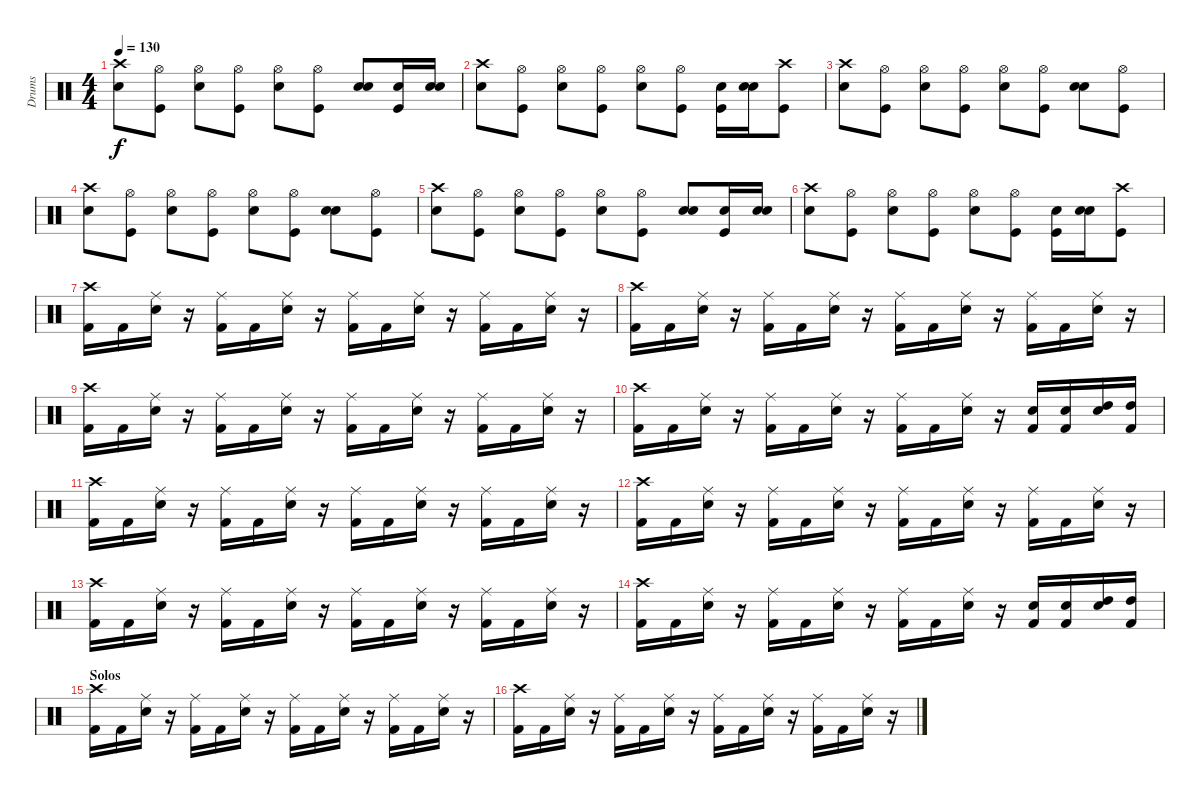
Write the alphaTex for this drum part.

\track ("Drums" "Drums") {instrument percussion}
\staff {score}
\articulation defaults
\ts (4 4)
\tempo 130
\clef neutral
\ks c
("Crash high (hit)" "Electric Snare (hit)").8{dy f} ("Hi-Hat (open)" "Kick (hit)").8 ("Electric Snare (hit)" "Hi-Hat (open)").8 ("Hi-Hat (open)" "Kick (hit)").8 ("Hi-Hat (open)" "Electric Snare (hit)").8 ("Hi-Hat (open)" "Kick (hit)").8 ("Electric Snare (hit)" "Electric Snare (hit)").8 ("Snare (hit) 2" "Kick (hit)").16 ("Snare (hit) 2" "Electric Snare (hit)").16 |
("Crash high (hit)" "Electric Snare (hit)").8 ("Hi-Hat (open)" "Kick (hit)").8 ("Electric Snare (hit)" "Hi-Hat (open)").8 ("Hi-Hat (open)" "Kick (hit)").8 ("Hi-Hat (open)" "Electric Snare (hit)").8 ("Hi-Hat (open)" "Kick (hit)").8 ("Snare (hit) 2" "Kick (hit)").16 ("Snare (hit) 2" "Electric Snare (hit)").16 ("Crash high (hit)" "Kick (hit)").8 |
("Crash high (hit)" "Electric Snare (hit)").8 ("Hi-Hat (open)" "Kick (hit)").8 ("Electric Snare (hit)" "Hi-Hat (open)").8 ("Hi-Hat (open)" "Kick (hit)").8 ("Hi-Hat (open)" "Electric Snare (hit)").8 ("Hi-Hat (open)" "Kick (hit)").8 ("Electric Snare (hit)" "Electric Snare (hit)").8 ("Hi-Hat (open)" "Kick (hit)").8 |
("Crash high (hit)" "Electric Snare (hit)").8 ("Hi-Hat (open)" "Kick (hit)").8 ("Electric Snare (hit)" "Hi-Hat (open)").8 ("Hi-Hat (open)" "Kick (hit)").8 ("Hi-Hat (open)" "Electric Snare (hit)").8 ("Hi-Hat (open)" "Kick (hit)").8 ("Electric Snare (hit)" "Electric Snare (hit)").8 ("Hi-Hat (open)" "Kick (hit)").8 |
("Crash high (hit)" "Electric Snare (hit)").8 ("Hi-Hat (open)" "Kick (hit)").8 ("Electric Snare (hit)" "Hi-Hat (open)").8 ("Hi-Hat (open)" "Kick (hit)").8 ("Hi-Hat (open)" "Electric Snare (hit)").8 ("Hi-Hat (open)" "Kick (hit)").8 ("Electric Snare (hit)" "Electric Snare (hit)").8 ("Snare (hit) 2" "Kick (hit)").16 ("Snare (hit) 2" "Electric Snare (hit)").16 |
("Crash high (hit)" "Electric Snare (hit)").8 ("Hi-Hat (open)" "Kick (hit)").8 ("Electric Snare (hit)" "Hi-Hat (open)").8 ("Hi-Hat (open)" "Kick (hit)").8 ("Hi-Hat (open)" "Electric Snare (hit)").8 ("Hi-Hat (open)" "Kick (hit)").8 ("Snare (hit) 2" "Kick (hit)").16 ("Snare (hit) 2" "Electric Snare (hit)").16 ("Crash high (hit)" "Kick (hit)").8 |
("Crash high (hit)" "Kick (hit) 2").16 "Kick (hit) 2".16 ("Ride (middle)" "Snare (hit) 2").16 r.16 ("Ride (middle)" "Kick (hit) 2").16 "Kick (hit) 2".16 ("Ride (middle)" "Snare (hit) 2").16 r.16 ("Ride (middle)" "Kick (hit) 2").16 "Kick (hit) 2".16 ("Ride (middle)" "Snare (hit) 2").16 r.16 ("Ride (middle)" "Kick (hit) 2").16 "Kick (hit) 2".16 ("Ride (middle)" "Snare (hit) 2").16 r.16 |
("Crash high (hit)" "Kick (hit) 2").16 "Kick (hit) 2".16 ("Ride (middle)" "Snare (hit) 2").16 r.16 ("Ride (middle)" "Kick (hit) 2").16 "Kick (hit) 2".16 ("Ride (middle)" "Snare (hit) 2").16 r.16 ("Ride (middle)" "Kick (hit) 2").16 "Kick (hit) 2".16 ("Ride (middle)" "Snare (hit) 2").16 r.16 ("Ride (middle)" "Kick (hit) 2").16 "Kick (hit) 2".16 ("Ride (middle)" "Snare (hit) 2").16 r.16 |
("Crash high (hit)" "Kick (hit) 2").16 "Kick (hit) 2".16 ("Ride (middle)" "Snare (hit) 2").16 r.16 ("Ride (middle)" "Kick (hit) 2").16 "Kick (hit) 2".16 ("Ride (middle)" "Snare (hit) 2").16 r.16 ("Ride (middle)" "Kick (hit) 2").16 "Kick (hit) 2".16 ("Ride (middle)" "Snare (hit) 2").16 r.16 ("Ride (middle)" "Kick (hit) 2").16 "Kick (hit) 2".16 ("Ride (middle)" "Snare (hit) 2").16 r.16 |
("Crash high (hit)" "Kick (hit) 2").16 "Kick (hit) 2".16 ("Ride (middle)" "Snare (hit) 2").16 r.16 ("Ride (middle)" "Kick (hit) 2").16 "Kick (hit) 2".16 ("Ride (middle)" "Snare (hit) 2").16 r.16 ("Ride (middle)" "Kick (hit) 2").16 "Kick (hit) 2".16 ("Ride (middle)" "Snare (hit) 2").16 r.16 ("Electric Snare (hit)" "Kick (hit) 2").16 ("Electric Snare (hit)" "Kick (hit) 2").16 ("High Tom (hit)" "Snare (hit) 2").16 ("High Tom (hit)" "Kick (hit) 2").16 |
("Crash high (hit)" "Kick (hit) 2").16 "Kick (hit) 2".16 ("Ride (middle)" "Snare (hit) 2").16 r.16 ("Ride (middle)" "Kick (hit) 2").16 "Kick (hit) 2".16 ("Ride (middle)" "Snare (hit) 2").16 r.16 ("Ride (middle)" "Kick (hit) 2").16 "Kick (hit) 2".16 ("Ride (middle)" "Snare (hit) 2").16 r.16 ("Ride (middle)" "Kick (hit) 2").16 "Kick (hit) 2".16 ("Ride (middle)" "Snare (hit) 2").16 r.16 |
("Crash high (hit)" "Kick (hit) 2").16 "Kick (hit) 2".16 ("Ride (middle)" "Snare (hit) 2").16 r.16 ("Ride (middle)" "Kick (hit) 2").16 "Kick (hit) 2".16 ("Ride (middle)" "Snare (hit) 2").16 r.16 ("Ride (middle)" "Kick (hit) 2").16 "Kick (hit) 2".16 ("Ride (middle)" "Snare (hit) 2").16 r.16 ("Ride (middle)" "Kick (hit) 2").16 "Kick (hit) 2".16 ("Ride (middle)" "Snare (hit) 2").16 r.16 |
("Crash high (hit)" "Kick (hit) 2").16 "Kick (hit) 2".16 ("Ride (middle)" "Snare (hit) 2").16 r.16 ("Ride (middle)" "Kick (hit) 2").16 "Kick (hit) 2".16 ("Ride (middle)" "Snare (hit) 2").16 r.16 ("Ride (middle)" "Kick (hit) 2").16 "Kick (hit) 2".16 ("Ride (middle)" "Snare (hit) 2").16 r.16 ("Ride (middle)" "Kick (hit) 2").16 "Kick (hit) 2".16 ("Ride (middle)" "Snare (hit) 2").16 r.16 |
("Crash high (hit)" "Kick (hit) 2").16 "Kick (hit) 2".16 ("Ride (middle)" "Snare (hit) 2").16 r.16 ("Ride (middle)" "Kick (hit) 2").16 "Kick (hit) 2".16 ("Ride (middle)" "Snare (hit) 2").16 r.16 ("Ride (middle)" "Kick (hit) 2").16 "Kick (hit) 2".16 ("Ride (middle)" "Snare (hit) 2").16 r.16 ("Electric Snare (hit)" "Kick (hit) 2").16 ("Electric Snare (hit)" "Kick (hit) 2").16 ("High Tom (hit)" "Snare (hit) 2").16 ("High Tom (hit)" "Kick (hit) 2").16 |
\section ("" "Solos")
("Crash high (hit)" "Kick (hit) 2").16 "Kick (hit) 2".16 ("Ride (middle)" "Snare (hit) 2").16 r.16 ("Ride (middle)" "Kick (hit) 2").16 "Kick (hit) 2".16 ("Ride (middle)" "Snare (hit) 2").16 r.16 ("Ride (middle)" "Kick (hit) 2").16 "Kick (hit) 2".16 ("Ride (middle)" "Snare (hit) 2").16 r.16 ("Ride (middle)" "Kick (hit) 2").16 "Kick (hit) 2".16 ("Ride (middle)" "Snare (hit) 2").16 r.16 |
("Crash high (hit)" "Kick (hit) 2").16 "Kick (hit) 2".16 ("Ride (middle)" "Snare (hit) 2").16 r.16 ("Ride (middle)" "Kick (hit) 2").16 "Kick (hit) 2".16 ("Ride (middle)" "Snare (hit) 2").16 r.16 ("Ride (middle)" "Kick (hit) 2").16 "Kick (hit) 2".16 ("Ride (middle)" "Snare (hit) 2").16 r.16 ("Ride (middle)" "Kick (hit) 2").16 "Kick (hit) 2".16 ("Ride (middle)" "Snare (hit) 2").16 r.16
